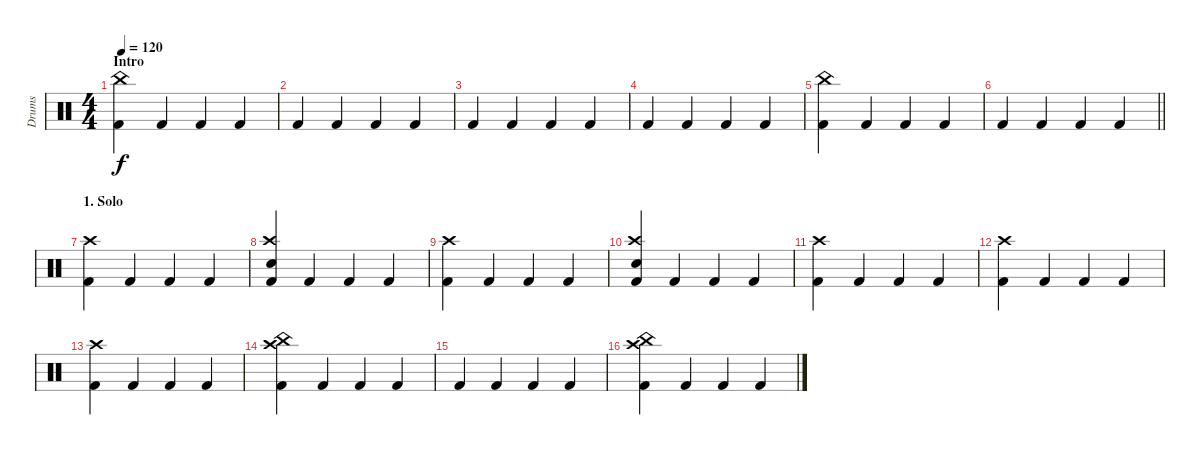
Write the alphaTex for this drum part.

\track ("Drums" "Drums") {instrument percussion}
\staff {score}
\articulation defaults
\ts (4 4)
\section ("" "Intro")
\tempo 120
\clef neutral
\ks c
("China (hit)" "Kick (hit) 2").4{dy f} "Kick (hit) 2".4 "Kick (hit) 2".4 "Kick (hit) 2".4 |
"Kick (hit) 2".4 "Kick (hit) 2".4 "Kick (hit) 2".4 "Kick (hit) 2".4 |
"Kick (hit) 2".4 "Kick (hit) 2".4 "Kick (hit) 2".4 "Kick (hit) 2".4 |
"Kick (hit) 2".4 "Kick (hit) 2".4 "Kick (hit) 2".4 "Kick (hit) 2".4 |
("China (hit)" "Kick (hit) 2").4 "Kick (hit) 2".4 "Kick (hit) 2".4 "Kick (hit) 2".4 |
\barLineRight lightlight "Kick (hit) 2".4 "Kick (hit) 2".4 "Kick (hit) 2".4 "Kick (hit) 2".4
|
\section ("" "1. Solo")
("Crash high (hit)" "Kick (hit) 2").4 "Kick (hit) 2".4 "Kick (hit) 2".4 "Kick (hit) 2".4 |
("Crash high (hit)" "Snare (hit) 2" "Kick (hit) 2").4 "Kick (hit) 2".4 "Kick (hit) 2".4 "Kick (hit) 2".4 |
("Crash high (hit)" "Kick (hit) 2").4 "Kick (hit) 2".4 "Kick (hit) 2".4 "Kick (hit) 2".4 |
("Crash high (hit)" "Snare (hit) 2" "Kick (hit) 2").4 "Kick (hit) 2".4 "Kick (hit) 2".4 "Kick (hit) 2".4 |
("Crash high (hit)" "Kick (hit) 2").4 "Kick (hit) 2".4 "Kick (hit) 2".4 "Kick (hit) 2".4 |
("Crash high (hit)" "Kick (hit) 2").4 "Kick (hit) 2".4 "Kick (hit) 2".4 "Kick (hit) 2".4 |
("Crash high (hit)" "Kick (hit) 2").4 "Kick (hit) 2".4 "Kick (hit) 2".4 "Kick (hit) 2".4 |
("Crash high (hit)" "China (hit)" "Kick (hit) 2").4 "Kick (hit) 2".4 "Kick (hit) 2".4 "Kick (hit) 2".4 |
"Kick (hit) 2".4 "Kick (hit) 2".4 "Kick (hit) 2".4 "Kick (hit) 2".4 |
("Crash high (hit)" "China (hit)" "Kick (hit) 2").4 "Kick (hit) 2".4 "Kick (hit) 2".4 "Kick (hit) 2".4
